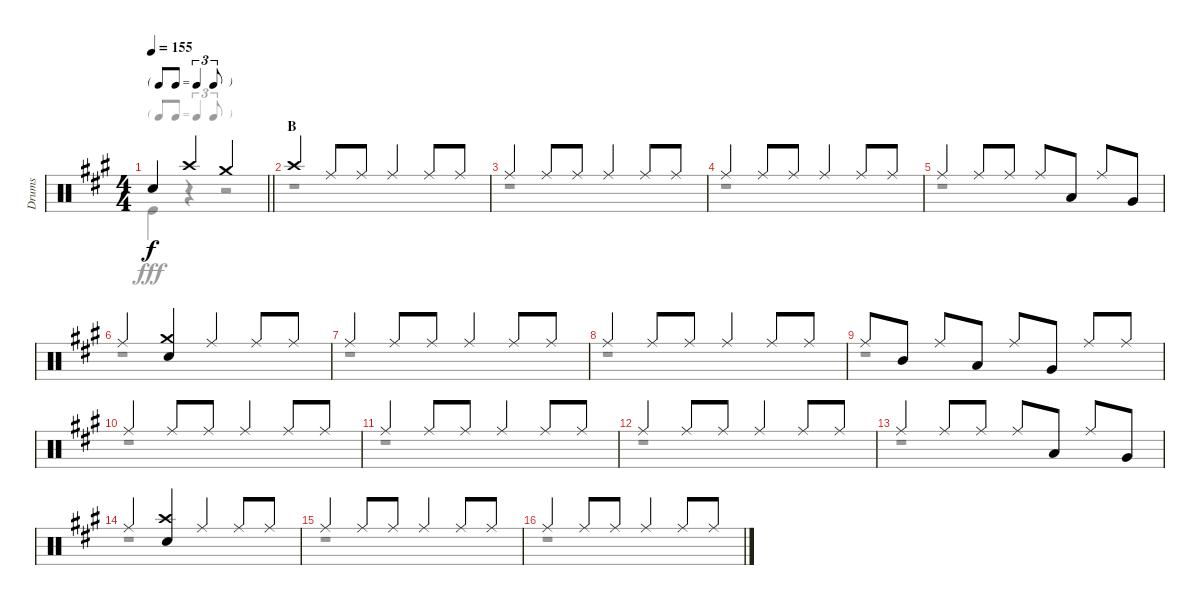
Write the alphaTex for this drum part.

\track ("Drums" "Drums") {instrument percussion}
\staff {score}
\articulation defaults
\voice
\ts (4 4)
\tf triplet8th
\tempo 155
\clef neutral
\barLineRight lightlight
\ks a "Snare (hit) 2".4{dy f} "Crash high (hit)".4 "Crash medium (hit)".2
|
\section ("" "B")
"Crash high (hit)".4 "Ride (middle)".8 "Ride (middle)".8 "Ride (middle)".4 "Ride (middle)".8 "Ride (middle)".8 |
"Ride (middle)".4 "Ride (middle)".8 "Ride (middle)".8 "Ride (middle)".4 "Ride (middle)".8 "Ride (middle)".8 |
"Ride (middle)".4 "Ride (middle)".8 "Ride (middle)".8 "Ride (middle)".4 "Ride (middle)".8 "Ride (middle)".8 |
"Ride (middle)".4 "Ride (middle)".8 "Ride (middle)".8 "Ride (middle)".8 "Low Tom (hit)".8 "Ride (middle)".8 "Very Low Tom (hit)".8 |
"Ride (middle)".4 ("Crash medium (hit)" "Snare (hit) 2").4 "Ride (middle)".4 "Ride (middle)".8 "Ride (middle)".8 |
"Ride (middle)".4 "Ride (middle)".8 "Ride (middle)".8 "Ride (middle)".4 "Ride (middle)".8 "Ride (middle)".8 |
"Ride (middle)".4 "Ride (middle)".8 "Ride (middle)".8 "Ride (middle)".4 "Ride (middle)".8 "Ride (middle)".8 |
"Ride (middle)".8 "Mid Tom (hit)".8 "Ride (middle)".8 "Low Tom (hit)".8 "Ride (middle)".8 "Very Low Tom (hit)".8 "Ride (middle)".8 "Ride (middle)".8 |
"Ride (middle)".4 "Ride (middle)".8 "Ride (middle)".8 "Ride (middle)".4 "Ride (middle)".8 "Ride (middle)".8 |
"Ride (middle)".4 "Ride (middle)".8 "Ride (middle)".8 "Ride (middle)".4 "Ride (middle)".8 "Ride (middle)".8 |
"Ride (middle)".4 "Ride (middle)".8 "Ride (middle)".8 "Ride (middle)".4 "Ride (middle)".8 "Ride (middle)".8 |
"Ride (middle)".4 "Ride (middle)".8 "Ride (middle)".8 "Ride (middle)".8 "Low Tom (hit)".8 "Ride (middle)".8 "Very Low Tom (hit)".8 |
"Ride (middle)".4 ("Crash high (hit)" "Snare (hit) 2").4 "Ride (middle)".4 "Ride (middle)".8 "Ride (middle)".8 |
"Ride (middle)".4 "Ride (middle)".8 "Ride (middle)".8 "Ride (middle)".4 "Ride (middle)".8 "Ride (middle)".8 |
"Ride (middle)".4 "Ride (middle)".8 "Ride (middle)".8 "Ride (middle)".4 "Ride (middle)".8 "Ride (middle)".8
\voice
\clef neutral
\ottava regular
\simile none
\barLineRight lightlight
\ks a "Kick (hit)".4{dy fff}
r.4 r.2 |
r.1 |
r.1 |
r.1 |
r.1 |
r.1 |
r.1 |
r.1 |
r.1 |
r.1 |
r.1 |
r.1 |
r.1 |
r.1 |
r.1 |
r.1
